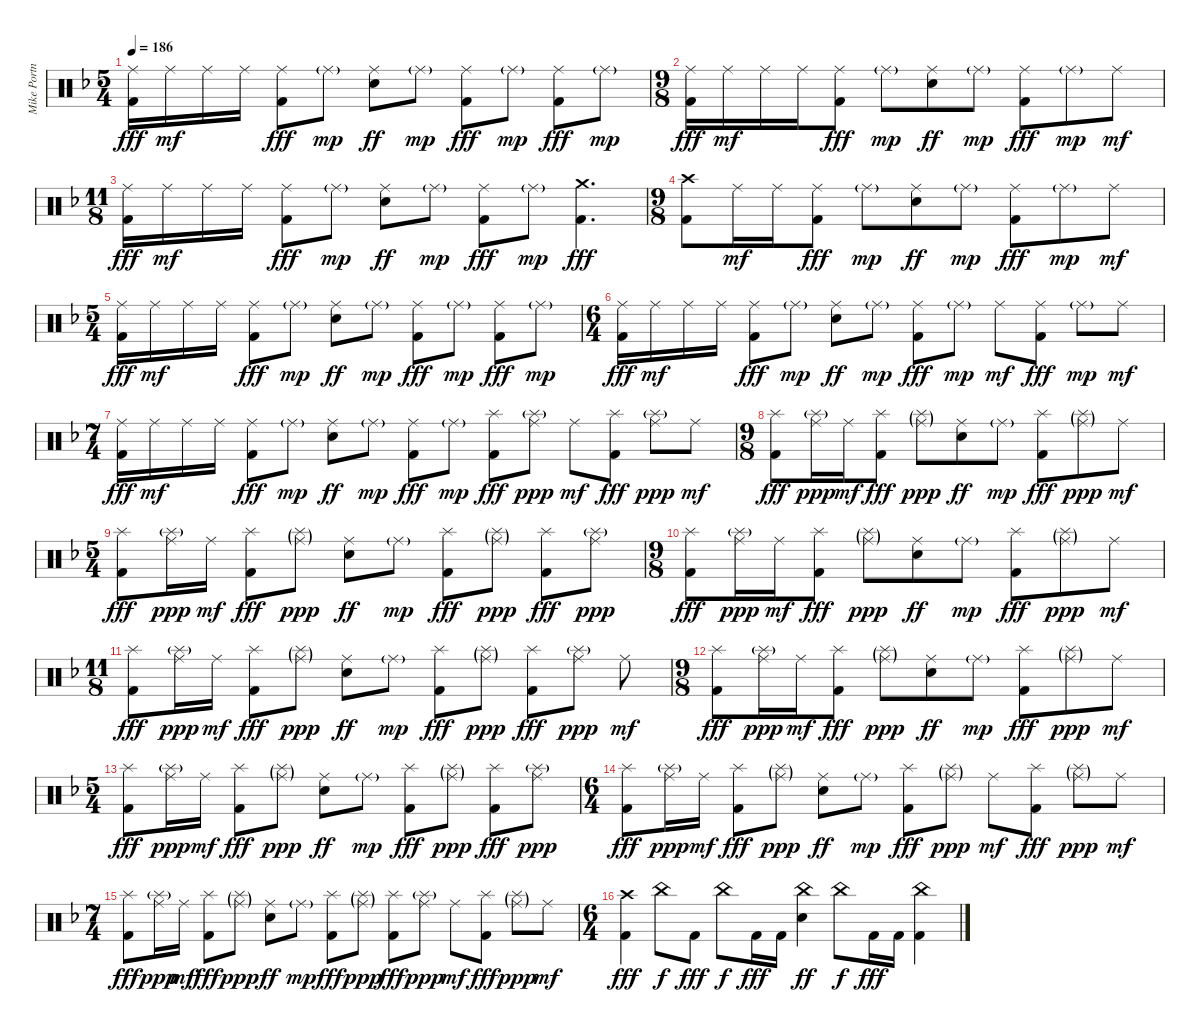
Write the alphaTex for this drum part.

\track ("Mike Portnoy Drums" "Mike Portn") {instrument percussion}
\staff {score}
\articulation defaults
\ts (5 4)
\tempo 186
\clef neutral
\ks dminor
("Ride (middle)" "Kick (hit) 2").16{dy fff} "Ride (middle)".16{dy mf} "Ride (middle)".16 "Ride (middle)".16 ("Ride (middle)" "Kick (hit) 2").8{dy fff} "Ride (middle)"{g}.8{dy mp} ("Ride (middle)" "Electric Snare (hit)").8{dy ff} "Ride (middle)"{g}.8{dy mp} ("Ride (middle)" "Kick (hit) 2").8{dy fff} "Ride (middle)"{g}.8{dy mp} ("Ride (middle)" "Kick (hit) 2").8{dy fff} "Ride (middle)"{g}.8{dy mp} |
\ts (9 8)
("Ride (middle)" "Kick (hit) 2").16{dy fff} "Ride (middle)".16{dy mf} "Ride (middle)".16 "Ride (middle)".16 ("Ride (middle)" "Kick (hit) 2").8{dy fff} "Ride (middle)"{g}.8{dy mp} ("Ride (middle)" "Electric Snare (hit)").8{dy ff} "Ride (middle)"{g}.8{dy mp} ("Ride (middle)" "Kick (hit) 2").8{dy fff} "Ride (middle)"{g}.8{dy mp} "Ride (middle)".8{dy mf} |
\ts (11 8)
("Ride (middle)" "Kick (hit) 2").16{dy fff} "Ride (middle)".16{dy mf} "Ride (middle)".16 "Ride (middle)".16 ("Ride (middle)" "Kick (hit) 2").8{dy fff} "Ride (middle)"{g}.8{dy mp} ("Ride (middle)" "Electric Snare (hit)").8{dy ff} "Ride (middle)"{g}.8{dy mp} ("Ride (middle)" "Kick (hit) 2").8{dy fff} "Ride (middle)"{g}.8{dy mp} ("Crash medium (hit)" "Kick (hit) 2").4{d dy fff} |
\ts (9 8)
("Crash high (hit)" "Kick (hit) 2").8 "Ride (middle)".16{dy mf} "Ride (middle)".16 ("Ride (middle)" "Kick (hit) 2").8{dy fff} "Ride (middle)"{g}.8{dy mp} ("Ride (middle)" "Electric Snare (hit)").8{dy ff} "Ride (middle)"{g}.8{dy mp} ("Ride (middle)" "Kick (hit) 2").8{dy fff} "Ride (middle)"{g}.8{dy mp} "Ride (middle)".8{dy mf} |
\ts (5 4)
("Ride (middle)" "Kick (hit) 2").16{dy fff} "Ride (middle)".16{dy mf} "Ride (middle)".16 "Ride (middle)".16 ("Ride (middle)" "Kick (hit) 2").8{dy fff} "Ride (middle)"{g}.8{dy mp} ("Ride (middle)" "Electric Snare (hit)").8{dy ff} "Ride (middle)"{g}.8{dy mp} ("Ride (middle)" "Kick (hit) 2").8{dy fff} "Ride (middle)"{g}.8{dy mp} ("Ride (middle)" "Kick (hit) 2").8{dy fff} "Ride (middle)"{g}.8{dy mp} |
\ts (6 4)
("Ride (middle)" "Kick (hit) 2").16{dy fff} "Ride (middle)".16{dy mf} "Ride (middle)".16 "Ride (middle)".16 ("Ride (middle)" "Kick (hit) 2").8{dy fff} "Ride (middle)"{g}.8{dy mp} ("Ride (middle)" "Electric Snare (hit)").8{dy ff} "Ride (middle)"{g}.8{dy mp} ("Ride (middle)" "Kick (hit) 2").8{dy fff} "Ride (middle)"{g}.8{dy mp} "Ride (middle)".8{dy mf} ("Ride (middle)" "Kick (hit) 2").8{dy fff} "Ride (middle)"{g}.8{dy mp} "Ride (middle)".8{dy mf} |
\ts (7 4)
("Ride (middle)" "Kick (hit) 2").16{dy fff} "Ride (middle)".16{dy mf} "Ride (middle)".16 "Ride (middle)".16 ("Ride (middle)" "Kick (hit) 2").8{dy fff} "Ride (middle)"{g}.8{dy mp} ("Ride (middle)" "Electric Snare (hit)").8{dy ff} "Ride (middle)"{g}.8{dy mp} ("Ride (middle)" "Kick (hit) 2").8{dy fff} "Ride (middle)"{g}.8{dy mp} ("Splash (hit)" "Kick (hit) 2").8{dy fff} ("Ride (middle)" "Splash (hit)"{g}).8{dy ppp} "Ride (middle)".8{dy mf} ("Splash (hit)" "Kick (hit) 2").8{dy fff} ("Ride (middle)" "Splash (hit)"{g}).8{dy ppp} "Ride (middle)".8{dy mf} |
\ts (9 8)
("Splash (hit)" "Kick (hit) 2").8{dy fff} ("Ride (middle)" "Splash (hit)"{g}).16{dy ppp} "Ride (middle)".16{dy mf} ("Splash (hit)" "Kick (hit) 2").8{dy fff} ("Ride (middle)"{g} "Splash (hit)"{g}).8{dy ppp} ("Ride (middle)" "Electric Snare (hit)").8{dy ff} "Ride (middle)"{g}.8{dy mp} ("Splash (hit)" "Kick (hit) 2").8{dy fff} ("Ride (middle)"{g} "Splash (hit)"{g}).8{dy ppp} "Ride (middle)".8{dy mf} |
\ts (5 4)
("Splash (hit)" "Kick (hit) 2").8{dy fff} ("Ride (middle)" "Splash (hit)"{g}).16{dy ppp} "Ride (middle)".16{dy mf} ("Splash (hit)" "Kick (hit) 2").8{dy fff} ("Ride (middle)"{g} "Splash (hit)"{g}).8{dy ppp} ("Ride (middle)" "Electric Snare (hit)").8{dy ff} "Ride (middle)"{g}.8{dy mp} ("Splash (hit)" "Kick (hit) 2").8{dy fff} ("Ride (middle)"{g} "Splash (hit)"{g}).8{dy ppp} ("Splash (hit)" "Kick (hit) 2").8{dy fff} ("Ride (middle)" "Splash (hit)"{g}).8{dy ppp} |
\ts (9 8)
("Splash (hit)" "Kick (hit) 2").8{dy fff} ("Ride (middle)" "Splash (hit)"{g}).16{dy ppp} "Ride (middle)".16{dy mf} ("Splash (hit)" "Kick (hit) 2").8{dy fff} ("Ride (middle)"{g} "Splash (hit)"{g}).8{dy ppp} ("Ride (middle)" "Electric Snare (hit)").8{dy ff} "Ride (middle)"{g}.8{dy mp} ("Splash (hit)" "Kick (hit) 2").8{dy fff} ("Ride (middle)"{g} "Splash (hit)"{g}).8{dy ppp} "Ride (middle)".8{dy mf} |
\ts (11 8)
("Splash (hit)" "Kick (hit) 2").8{dy fff} ("Ride (middle)" "Splash (hit)"{g}).16{dy ppp} "Ride (middle)".16{dy mf} ("Splash (hit)" "Kick (hit) 2").8{dy fff} ("Ride (middle)"{g} "Splash (hit)"{g}).8{dy ppp} ("Ride (middle)" "Electric Snare (hit)").8{dy ff} "Ride (middle)"{g}.8{dy mp} ("Splash (hit)" "Kick (hit) 2").8{dy fff} ("Ride (middle)"{g} "Splash (hit)"{g}).8{dy ppp} ("Splash (hit)" "Kick (hit) 2").8{dy fff} ("Ride (middle)" "Splash (hit)"{g}).8{dy ppp} "Ride (middle)".8{dy mf} |
\ts (9 8)
("Splash (hit)" "Kick (hit) 2").8{dy fff} ("Ride (middle)" "Splash (hit)"{g}).16{dy ppp} "Ride (middle)".16{dy mf} ("Splash (hit)" "Kick (hit) 2").8{dy fff} ("Ride (middle)"{g} "Splash (hit)"{g}).8{dy ppp} ("Ride (middle)" "Electric Snare (hit)").8{dy ff} "Ride (middle)"{g}.8{dy mp} ("Splash (hit)" "Kick (hit) 2").8{dy fff} ("Ride (middle)"{g} "Splash (hit)"{g}).8{dy ppp} "Ride (middle)".8{dy mf} |
\ts (5 4)
("Splash (hit)" "Kick (hit) 2").8{dy fff} ("Ride (middle)" "Splash (hit)"{g}).16{dy ppp} "Ride (middle)".16{dy mf} ("Splash (hit)" "Kick (hit) 2").8{dy fff} ("Ride (middle)"{g} "Splash (hit)"{g}).8{dy ppp} ("Ride (middle)" "Electric Snare (hit)").8{dy ff} "Ride (middle)"{g}.8{dy mp} ("Splash (hit)" "Kick (hit) 2").8{dy fff} ("Ride (middle)"{g} "Splash (hit)"{g}).8{dy ppp} ("Splash (hit)" "Kick (hit) 2").8{dy fff} ("Ride (middle)" "Splash (hit)"{g}).8{dy ppp} |
\ts (6 4)
("Splash (hit)" "Kick (hit) 2").8{dy fff} ("Ride (middle)" "Splash (hit)"{g}).16{dy ppp} "Ride (middle)".16{dy mf} ("Splash (hit)" "Kick (hit) 2").8{dy fff} ("Ride (middle)"{g} "Splash (hit)"{g}).8{dy ppp} ("Ride (middle)" "Electric Snare (hit)").8{dy ff} "Ride (middle)"{g}.8{dy mp} ("Splash (hit)" "Kick (hit) 2").8{dy fff} ("Ride (middle)"{g} "Splash (hit)"{g}).8{dy ppp} "Ride (middle)".8{dy mf} ("Splash (hit)" "Kick (hit) 2").8{dy fff} ("Ride (middle)"{g} "Splash (hit)"{g}).8{dy ppp} "Ride (middle)".8{dy mf} |
\ts (7 4)
("Splash (hit)" "Kick (hit) 2").8{dy fff} ("Ride (middle)" "Splash (hit)"{g}).16{dy ppp} "Ride (middle)".16{dy mf} ("Splash (hit)" "Kick (hit) 2").8{dy fff} ("Ride (middle)"{g} "Splash (hit)"{g}).8{dy ppp} ("Ride (middle)" "Electric Snare (hit)").8{dy ff} "Ride (middle)"{g}.8{dy mp} ("Splash (hit)" "Kick (hit) 2").8{dy fff} ("Ride (middle)"{g} "Splash (hit)"{g}).8{dy ppp} ("Splash (hit)" "Kick (hit) 2").8{dy fff} ("Ride (middle)" "Splash (hit)"{g}).8{dy ppp} "Ride (middle)".8{dy mf} ("Splash (hit)" "Kick (hit) 2").8{dy fff} ("Ride (middle)"{g} "Splash (hit)"{g}).8{dy ppp} "Ride (middle)".8{dy mf} |
\ts (6 4)
("Crash high (hit)" "Kick (hit) 2").4{dy fff} "China (hit)".8{dy f} "Kick (hit) 2".8{dy fff} "China (hit)".8{dy f} "Kick (hit) 2".16{dy fff} "Kick (hit) 2".16 ("China (hit)" "Electric Snare (hit)").4{dy ff} "China (hit)".8{dy f} "Kick (hit) 2".16{dy fff} "Kick (hit) 2".16 ("China (hit)" "Kick (hit) 2").4
